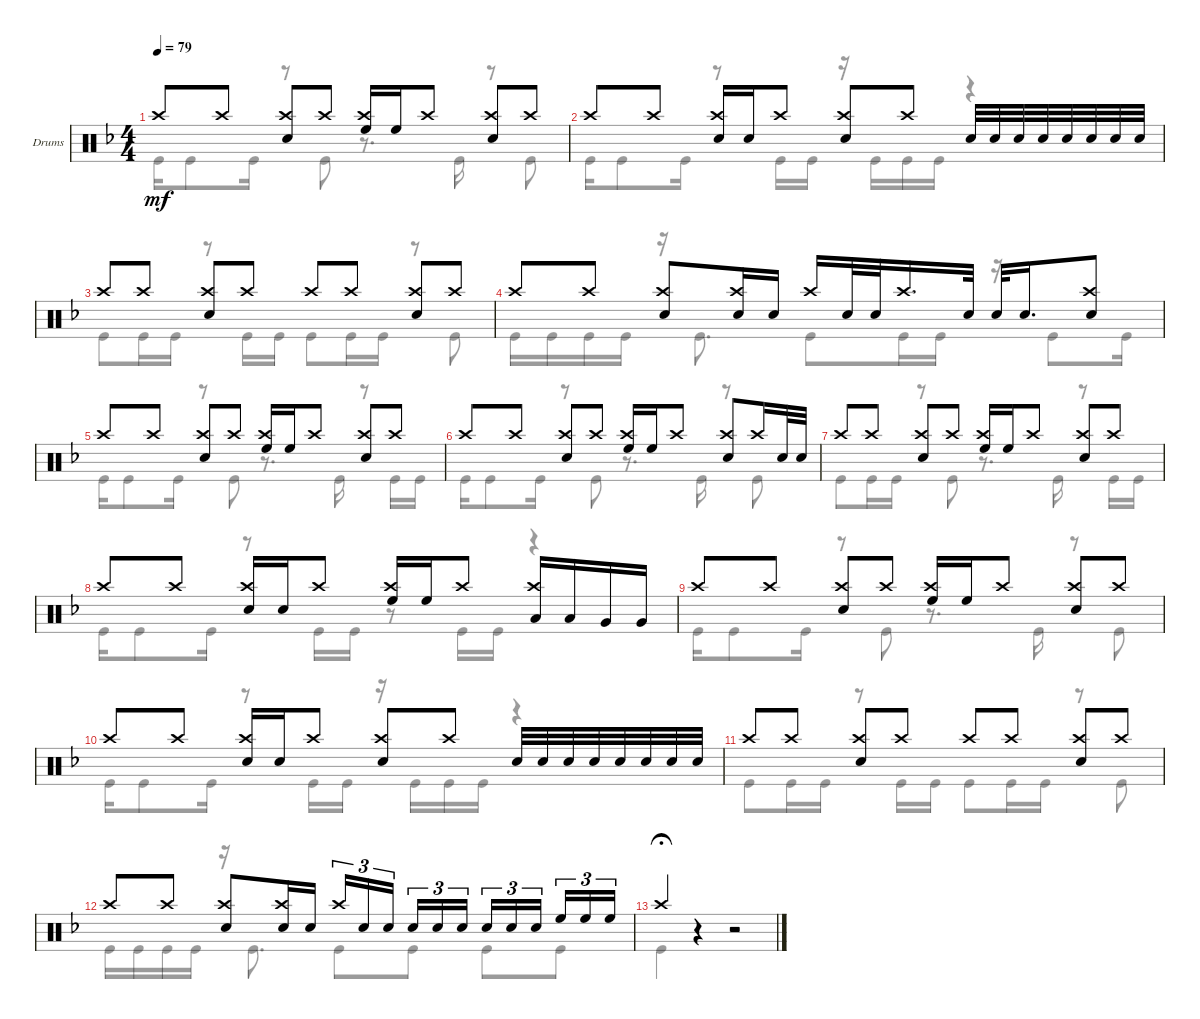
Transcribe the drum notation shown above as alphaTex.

\defaultSystemsLayout 4
\bracketExtendMode groupsimilarinstruments
\firstSystemTrackNameOrientation horizontal
\otherSystemsTrackNameOrientation horizontal
\track ("Drums" "Drums") {instrument percussion}
\staff {score}
\articulation defaults
\voice
\ts (4 4)
\tempo 79
\clef neutral
\scale
1.04161
\ks f "Crash high (hit)".8{dy mf} "Crash high (hit)".8
("Snare (hit) 2" "Crash high (hit)").8 "Crash high (hit)".8 ("High Floor Tom (hit)" "Crash high (hit)").16 "High Floor Tom (hit)".16 "Crash high (hit)".8 ("Snare (hit) 2" "Crash high (hit)").8 "Crash high (hit)".8 |
\scale
0.958386 "Crash high (hit)".8 "Crash high (hit)".8 ("Snare (hit) 2" "Crash high (hit)").16 "Snare (hit) 2".16 "Crash high (hit)".8 ("Crash high (hit)" "Snare (hit) 2").8 "Crash high (hit)".8 "Snare (hit) 2".32 "Snare (hit) 2".32 "Snare (hit) 2".32 "Snare (hit) 2".32 "Snare (hit) 2".32 "Snare (hit) 2".32 "Snare (hit) 2".32 "Snare (hit) 2".32 |
\scale
1.04161 "Crash high (hit)".8 "Crash high (hit)".8 ("Crash high (hit)" "Snare (hit) 2").8 "Crash high (hit)".8 "Crash high (hit)".8 "Crash high (hit)".8 ("Crash high (hit)" "Snare (hit) 2").8 "Crash high (hit)".8 |
\scale
0.958386 "Crash high (hit)".8 "Crash high (hit)".8 ("Crash high (hit)" "Snare (hit) 2").8 ("Crash high (hit)" "Snare (hit) 2").16 "Snare (hit) 2".16 "Crash high (hit)".16 "Snare (hit) 2".32 "Snare (hit) 2".32 "Crash high (hit)".16{d} "Snare (hit) 2".32 "Snare (hit) 2".32 "Snare (hit) 2".16{d} ("Snare (hit) 2" "Crash high (hit)").8 |
\scale
1.04161 "Crash high (hit)".8 "Crash high (hit)".8 ("Snare (hit) 2" "Crash high (hit)").8 "Crash high (hit)".8 ("High Floor Tom (hit)" "Crash high (hit)").16 "High Floor Tom (hit)".16 "Crash high (hit)".8 ("Snare (hit) 2" "Crash high (hit)").8 "Crash high (hit)".8 |
\scale
0.958386 "Crash high (hit)".8 "Crash high (hit)".8 ("Snare (hit) 2" "Crash high (hit)").8 "Crash high (hit)".8 ("High Floor Tom (hit)" "Crash high (hit)").16 "High Floor Tom (hit)".16 "Crash high (hit)".8 ("Snare (hit) 2" "Crash high (hit)").8 "Crash high (hit)".16 "Snare (hit) 2".32 "Snare (hit) 2".32 |
\scale
1.04161 "Crash high (hit)".8 "Crash high (hit)".8 ("Snare (hit) 2" "Crash high (hit)").8 "Crash high (hit)".8 ("High Floor Tom (hit)" "Crash high (hit)").16 "High Floor Tom (hit)".16 "Crash high (hit)".8 ("Snare (hit) 2" "Crash high (hit)").8 "Crash high (hit)".8 |
\scale
0.958386 "Crash high (hit)".8 "Crash high (hit)".8 ("Snare (hit) 2" "Crash high (hit)").16 "Snare (hit) 2".16 "Crash high (hit)".8 ("High Floor Tom (hit)" "Crash high (hit)").16 "High Floor Tom (hit)".16 "Crash high (hit)".8 ("Low Tom (hit)" "Crash high (hit)").16 "Low Tom (hit)".16 "Very Low Tom (hit)".16 "Very Low Tom (hit)".16 |
\scale
1.04161 "Crash high (hit)".8 "Crash high (hit)".8 ("Snare (hit) 2" "Crash high (hit)").8 "Crash high (hit)".8 ("High Floor Tom (hit)" "Crash high (hit)").16 "High Floor Tom (hit)".16 "Crash high (hit)".8 ("Snare (hit) 2" "Crash high (hit)").8 "Crash high (hit)".8 |
\scale
0.958386 "Crash high (hit)".8 "Crash high (hit)".8 ("Snare (hit) 2" "Crash high (hit)").16 "Snare (hit) 2".16 "Crash high (hit)".8 ("Crash high (hit)" "Snare (hit) 2").8 "Crash high (hit)".8 "Snare (hit) 2".32 "Snare (hit) 2".32 "Snare (hit) 2".32 "Snare (hit) 2".32 "Snare (hit) 2".32 "Snare (hit) 2".32 "Snare (hit) 2".32 "Snare (hit) 2".32 |
\scale
1.04161 "Crash high (hit)".8 "Crash high (hit)".8 ("Crash high (hit)" "Snare (hit) 2").8 "Crash high (hit)".8 "Crash high (hit)".8 "Crash high (hit)".8 ("Crash high (hit)" "Snare (hit) 2").8 "Crash high (hit)".8 |
\scale
0.958386 "Crash high (hit)".8 "Crash high (hit)".8 ("Crash high (hit)" "Snare (hit) 2").8 ("Crash high (hit)" "Snare (hit) 2").16 "Snare (hit) 2".16 "Crash high (hit)".16{tu (3 2)} "Snare (hit) 2".16{tu (3 2)} "Snare (hit) 2".16{tu (3 2)} "Snare (hit) 2".16{tu (3 2)} "Snare (hit) 2".16{tu (3 2)} "Snare (hit) 2".16{tu (3 2)} "Snare (hit) 2".16{tu (3 2)} "Snare (hit) 2".16{tu (3 2)} "Snare (hit) 2".16{tu (3 2)} "High Floor Tom (hit)".16{tu (3 2)} "High Floor Tom (hit)".16{tu (3 2)} "High Floor Tom (hit)".16{tu (3 2)} |
"Crash high (hit)".4{fermata (medium 0.5)} r.4 r.2
\voice
\clef neutral
\ottava regular
\simile none
\scale
1.04161
\ks f "Kick (hit)".16{dy mf} "Kick (hit)".8 "Kick (hit)".16
r.8 "Kick (hit)".8 r.8{d} "Kick (hit)".16 r.8 "Kick (hit)".8 |
\scale
0.958386 "Kick (hit)".16 "Kick (hit)".8 "Kick (hit)".16 r.8 "Kick (hit)".16 "Kick (hit)".16 r.16 "Kick (hit)".16 "Kick (hit)".16 "Kick (hit)".16 r.4 |
\scale
1.04161 "Kick (hit)".8 "Kick (hit)".16 "Kick (hit)".16 r.8 "Kick (hit)".16 "Kick (hit)".16 "Kick (hit)".8 "Kick (hit)".16 "Kick (hit)".16 r.8 "Kick (hit)".8 |
\scale
0.958386 "Kick (hit)".16 "Kick (hit)".16 "Kick (hit)".16 "Kick (hit)".16 r.16 "Kick (hit)".8{d} "Kick (hit)".8 "Kick (hit)".16 "Kick (hit)".16 r.16 "Kick (hit)".8 "Kick (hit)".16 |
\scale
1.04161 "Kick (hit)".16 "Kick (hit)".8 "Kick (hit)".16 r.8 "Kick (hit)".8 r.8{d} "Kick (hit)".16 r.8 "Kick (hit)".16 "Kick (hit)".16 |
\scale
0.958386 "Kick (hit)".16 "Kick (hit)".8 "Kick (hit)".16 r.8 "Kick (hit)".8 r.8{d} "Kick (hit)".16 r.8 "Kick (hit)".8 |
\scale
1.04161 "Kick (hit)".8 "Kick (hit)".16 "Kick (hit)".16 r.8 "Kick (hit)".8 r.8{d} "Kick (hit)".16 r.8 "Kick (hit)".16 "Kick (hit)".16 |
\scale
0.958386 "Kick (hit)".16 "Kick (hit)".8 "Kick (hit)".16 r.8 "Kick (hit)".16 "Kick (hit)".16 r.8 "Kick (hit)".16 "Kick (hit)".16 r.4 |
\scale
1.04161 "Kick (hit)".16 "Kick (hit)".8 "Kick (hit)".16 r.8 "Kick (hit)".8 r.8{d} "Kick (hit)".16 r.8 "Kick (hit)".8 |
\scale
0.958386 "Kick (hit)".16 "Kick (hit)".8 "Kick (hit)".16 r.8 "Kick (hit)".16 "Kick (hit)".16 r.16 "Kick (hit)".16 "Kick (hit)".16 "Kick (hit)".16 r.4 |
\scale
1.04161 "Kick (hit)".8 "Kick (hit)".16 "Kick (hit)".16 r.8 "Kick (hit)".16 "Kick (hit)".16 "Kick (hit)".8 "Kick (hit)".16 "Kick (hit)".16 r.8 "Kick (hit)".8 |
\scale
0.958386 "Kick (hit)".16 "Kick (hit)".16 "Kick (hit)".16 "Kick (hit)".16 r.16 "Kick (hit)".8{d} "Kick (hit)".8 "Kick (hit)".8 "Kick (hit)".8 "Kick (hit)".8 |
"Kick (hit)".4{fermata (medium 0.5)} r.4 r.2
